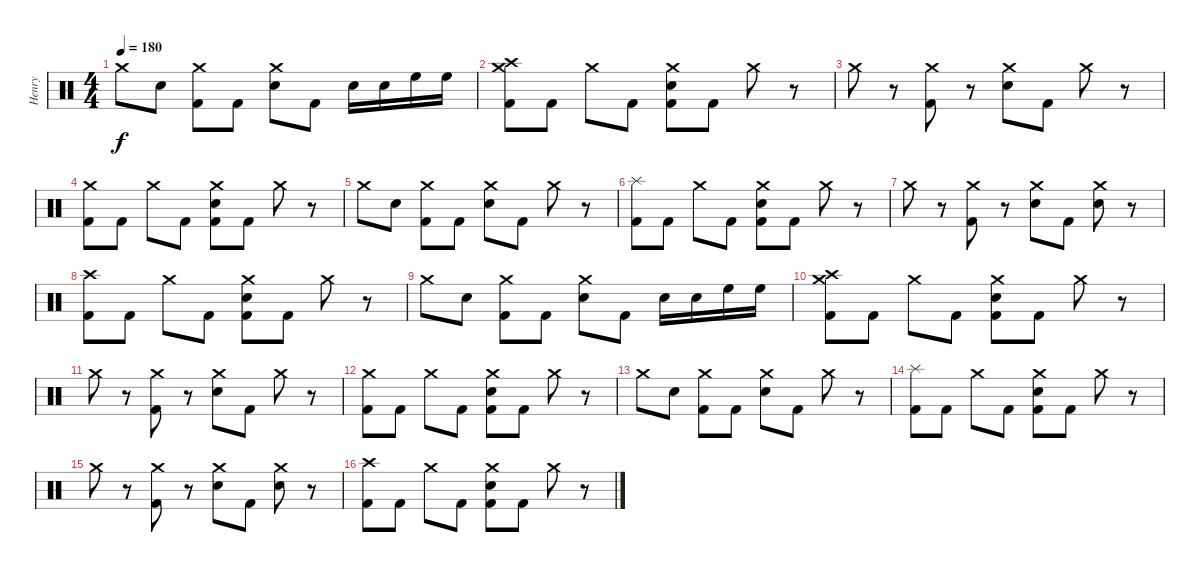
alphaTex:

\track ("Henry" "Henry") {instrument percussion}
\staff {score}
\articulation defaults
\ts (4 4)
\tempo 180
\clef neutral
\ks c "Crash medium (hit)".8{dy f} "Snare (hit) 2".8
("Crash medium (hit)" "Kick (hit) 2").8 "Kick (hit) 2".8 ("Crash medium (hit)" "Snare (hit) 2").8 "Kick (hit) 2".8 "Snare (hit) 2".16 "Snare (hit) 2".16 "High Floor Tom (hit)".16 "High Floor Tom (hit)".16 |
("Crash high (hit)" "Crash medium (hit)" "Kick (hit) 2").8 "Kick (hit) 2".8 "Crash medium (hit)".8 "Kick (hit) 2".8 ("Crash medium (hit)" "Snare (hit) 2" "Kick (hit) 2").8 "Kick (hit) 2".8 "Crash medium (hit)".8 r.8 |
"Crash medium (hit)".8 r.8 ("Crash medium (hit)" "Kick (hit) 2").8 r.8 ("Crash medium (hit)" "Snare (hit) 2").8 "Kick (hit) 2".8 "Crash medium (hit)".8 r.8 |
("Crash medium (hit)" "Kick (hit) 2").8 "Kick (hit) 2".8 "Crash medium (hit)".8 "Kick (hit) 2".8 ("Crash medium (hit)" "Snare (hit) 2" "Kick (hit) 2").8 "Kick (hit) 2".8 "Crash medium (hit)".8 r.8 |
"Crash medium (hit)".8 "Snare (hit) 2".8 ("Crash medium (hit)" "Kick (hit) 2").8 "Kick (hit) 2".8 ("Crash medium (hit)" "Snare (hit) 2").8 "Kick (hit) 2".8 "Crash medium (hit)".8 r.8 |
("Splash (hit)" "Kick (hit) 2").8 "Kick (hit) 2".8 "Crash medium (hit)".8 "Kick (hit) 2".8 ("Crash medium (hit)" "Snare (hit) 2" "Kick (hit) 2").8 "Kick (hit) 2".8 "Crash medium (hit)".8 r.8 |
"Crash medium (hit)".8 r.8 ("Crash medium (hit)" "Kick (hit) 2").8 r.8 ("Crash medium (hit)" "Snare (hit) 2").8 "Kick (hit) 2".8 ("Crash medium (hit)" "Snare (hit) 2").8 r.8 |
("Crash high (hit)" "Kick (hit) 2").8 "Kick (hit) 2".8 "Crash medium (hit)".8 "Kick (hit) 2".8 ("Crash medium (hit)" "Snare (hit) 2" "Kick (hit) 2").8 "Kick (hit) 2".8 "Crash medium (hit)".8 r.8 |
"Crash medium (hit)".8 "Snare (hit) 2".8 ("Crash medium (hit)" "Kick (hit) 2").8 "Kick (hit) 2".8 ("Crash medium (hit)" "Snare (hit) 2").8 "Kick (hit) 2".8 "Snare (hit) 2".16 "Snare (hit) 2".16 "High Floor Tom (hit)".16 "High Floor Tom (hit)".16 |
("Crash high (hit)" "Crash medium (hit)" "Kick (hit) 2").8 "Kick (hit) 2".8 "Crash medium (hit)".8 "Kick (hit) 2".8 ("Crash medium (hit)" "Snare (hit) 2" "Kick (hit) 2").8 "Kick (hit) 2".8 "Crash medium (hit)".8 r.8 |
"Crash medium (hit)".8 r.8 ("Crash medium (hit)" "Kick (hit) 2").8 r.8 ("Crash medium (hit)" "Snare (hit) 2").8 "Kick (hit) 2".8 "Crash medium (hit)".8 r.8 |
("Crash medium (hit)" "Kick (hit) 2").8 "Kick (hit) 2".8 "Crash medium (hit)".8 "Kick (hit) 2".8 ("Crash medium (hit)" "Snare (hit) 2" "Kick (hit) 2").8 "Kick (hit) 2".8 "Crash medium (hit)".8 r.8 |
"Crash medium (hit)".8 "Snare (hit) 2".8 ("Crash medium (hit)" "Kick (hit) 2").8 "Kick (hit) 2".8 ("Crash medium (hit)" "Snare (hit) 2").8 "Kick (hit) 2".8 "Crash medium (hit)".8 r.8 |
("Splash (hit)" "Kick (hit) 2").8 "Kick (hit) 2".8 "Crash medium (hit)".8 "Kick (hit) 2".8 ("Crash medium (hit)" "Snare (hit) 2" "Kick (hit) 2").8 "Kick (hit) 2".8 "Crash medium (hit)".8 r.8 |
"Crash medium (hit)".8 r.8 ("Crash medium (hit)" "Kick (hit) 2").8 r.8 ("Crash medium (hit)" "Snare (hit) 2").8 "Kick (hit) 2".8 ("Crash medium (hit)" "Snare (hit) 2").8 r.8 |
("Crash high (hit)" "Kick (hit) 2").8 "Kick (hit) 2".8 "Crash medium (hit)".8 "Kick (hit) 2".8 ("Crash medium (hit)" "Snare (hit) 2" "Kick (hit) 2").8 "Kick (hit) 2".8 "Crash medium (hit)".8 r.8
